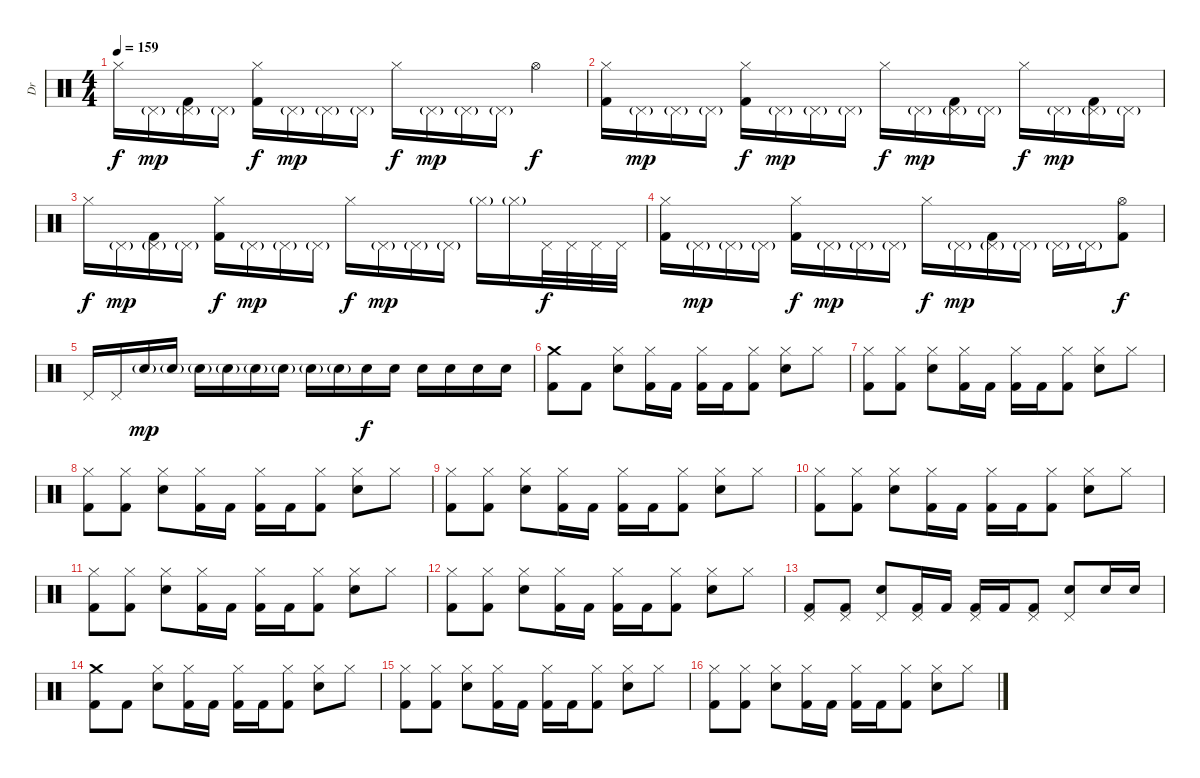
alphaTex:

\track ("Dr" "Dr") {instrument percussion}
\staff {score}
\articulation defaults
\ts (4 4)
\tempo 159
\clef neutral
\ks c "Hi-Hat (closed)".16{dy f} "Pedal Hi-Hat (hit)"{g}.16{dy mp}
("Pedal Hi-Hat (hit)"{g} "Kick (hit) 2").16 "Pedal Hi-Hat (hit)"{g}.16 ("Hi-Hat (closed)" "Kick (hit) 2").16{dy f} "Pedal Hi-Hat (hit)"{g}.16{dy mp} "Pedal Hi-Hat (hit)"{g}.16 "Pedal Hi-Hat (hit)"{g}.16 "Hi-Hat (closed)".16{dy f} "Pedal Hi-Hat (hit)"{g}.16{dy mp} "Pedal Hi-Hat (hit)"{g}.16 "Pedal Hi-Hat (hit)"{g}.16 "Hi-Hat (open)".4{dy f} |
("Hi-Hat (closed)" "Kick (hit) 2").16 "Pedal Hi-Hat (hit)"{g}.16{dy mp} "Pedal Hi-Hat (hit)"{g}.16 "Pedal Hi-Hat (hit)"{g}.16 ("Hi-Hat (closed)" "Kick (hit) 2").16{dy f} "Pedal Hi-Hat (hit)"{g}.16{dy mp} "Pedal Hi-Hat (hit)"{g}.16 "Pedal Hi-Hat (hit)"{g}.16 "Hi-Hat (closed)".16{dy f} "Pedal Hi-Hat (hit)"{g}.16{dy mp} ("Pedal Hi-Hat (hit)"{g} "Kick (hit) 2").16 "Pedal Hi-Hat (hit)"{g}.16 "Hi-Hat (closed)".16{dy f} "Pedal Hi-Hat (hit)"{g}.16{dy mp} ("Pedal Hi-Hat (hit)"{g} "Kick (hit) 2").16 "Pedal Hi-Hat (hit)"{g}.16 |
"Hi-Hat (closed)".16{dy f} "Pedal Hi-Hat (hit)"{g}.16{dy mp} ("Pedal Hi-Hat (hit)"{g} "Kick (hit) 2").16 "Pedal Hi-Hat (hit)"{g}.16 ("Hi-Hat (closed)" "Kick (hit) 2").16{dy f} "Pedal Hi-Hat (hit)"{g}.16{dy mp} "Pedal Hi-Hat (hit)"{g}.16 "Pedal Hi-Hat (hit)"{g}.16 "Hi-Hat (closed)".16{dy f} "Pedal Hi-Hat (hit)"{g}.16{dy mp} "Pedal Hi-Hat (hit)"{g}.16 "Pedal Hi-Hat (hit)"{g}.16 "Hi-Hat (closed)"{g}.16 "Hi-Hat (closed)"{g}.16 "Pedal Hi-Hat (hit)".32{dy f} "Pedal Hi-Hat (hit)".32 "Pedal Hi-Hat (hit)".32 "Pedal Hi-Hat (hit)".32 |
("Hi-Hat (closed)" "Kick (hit) 2").16 "Pedal Hi-Hat (hit)"{g}.16{dy mp} "Pedal Hi-Hat (hit)"{g}.16 "Pedal Hi-Hat (hit)"{g}.16 ("Hi-Hat (closed)" "Kick (hit) 2").16{dy f} "Pedal Hi-Hat (hit)"{g}.16{dy mp} "Pedal Hi-Hat (hit)"{g}.16 "Pedal Hi-Hat (hit)"{g}.16 "Hi-Hat (closed)".16{dy f} "Pedal Hi-Hat (hit)"{g}.16{dy mp} ("Pedal Hi-Hat (hit)"{g} "Kick (hit) 2").16 "Pedal Hi-Hat (hit)"{g}.16 "Pedal Hi-Hat (hit)"{g}.16 "Pedal Hi-Hat (hit)"{g}.16 ("Hi-Hat (open)" "Kick (hit) 2").8{dy f} |
"Pedal Hi-Hat (hit)".16 "Pedal Hi-Hat (hit)".16 "Electric Snare (hit)"{g}.16{dy mp volume 12} "Electric Snare (hit)"{g}.16 "Electric Snare (hit)"{g}.16 "Electric Snare (hit)"{g}.16 "Electric Snare (hit)"{g}.16 "Electric Snare (hit)"{g}.16 "Electric Snare (hit)"{g}.16 "Electric Snare (hit)"{g}.16 "Electric Snare (hit)".16{dy f} "Electric Snare (hit)".16 "Electric Snare (hit)".16 "Electric Snare (hit)".16 "Electric Snare (hit)".16 "Electric Snare (hit)".16 |
("Crash medium (hit)" "Kick (hit) 2").8 "Kick (hit) 2".8 ("Hi-Hat (closed)" "Electric Snare (hit)").8 ("Hi-Hat (closed)" "Kick (hit) 2").16 "Kick (hit) 2".16 ("Hi-Hat (closed)" "Kick (hit) 2").16 "Kick (hit) 2".16 ("Hi-Hat (closed)" "Kick (hit) 2").8 ("Hi-Hat (closed)" "Electric Snare (hit)").8 "Hi-Hat (closed)".8 |
("Hi-Hat (closed)" "Kick (hit) 2").8 ("Hi-Hat (closed)" "Kick (hit) 2").8 ("Hi-Hat (closed)" "Electric Snare (hit)").8 ("Hi-Hat (closed)" "Kick (hit) 2").16 "Kick (hit) 2".16 ("Hi-Hat (closed)" "Kick (hit) 2").16 "Kick (hit) 2".16 ("Hi-Hat (closed)" "Kick (hit) 2").8 ("Hi-Hat (closed)" "Electric Snare (hit)").8 "Hi-Hat (closed)".8 |
("Hi-Hat (closed)" "Kick (hit) 2").8 ("Hi-Hat (closed)" "Kick (hit) 2").8 ("Hi-Hat (closed)" "Electric Snare (hit)").8 ("Hi-Hat (closed)" "Kick (hit) 2").16 "Kick (hit) 2".16 ("Hi-Hat (closed)" "Kick (hit) 2").16 "Kick (hit) 2".16 ("Hi-Hat (closed)" "Kick (hit) 2").8 ("Hi-Hat (closed)" "Electric Snare (hit)").8 "Hi-Hat (closed)".8 |
("Hi-Hat (closed)" "Kick (hit) 2").8 ("Hi-Hat (closed)" "Kick (hit) 2").8 ("Hi-Hat (closed)" "Electric Snare (hit)").8 ("Hi-Hat (closed)" "Kick (hit) 2").16 "Kick (hit) 2".16 ("Hi-Hat (closed)" "Kick (hit) 2").16 "Kick (hit) 2".16 ("Hi-Hat (closed)" "Kick (hit) 2").8 ("Hi-Hat (closed)" "Electric Snare (hit)").8 "Hi-Hat (closed)".8 |
("Hi-Hat (closed)" "Kick (hit) 2").8 ("Hi-Hat (closed)" "Kick (hit) 2").8 ("Hi-Hat (closed)" "Electric Snare (hit)").8 ("Hi-Hat (closed)" "Kick (hit) 2").16 "Kick (hit) 2".16 ("Hi-Hat (closed)" "Kick (hit) 2").16 "Kick (hit) 2".16 ("Hi-Hat (closed)" "Kick (hit) 2").8 ("Hi-Hat (closed)" "Electric Snare (hit)").8 "Hi-Hat (closed)".8 |
("Hi-Hat (closed)" "Kick (hit) 2").8 ("Hi-Hat (closed)" "Kick (hit) 2").8 ("Hi-Hat (closed)" "Electric Snare (hit)").8 ("Hi-Hat (closed)" "Kick (hit) 2").16 "Kick (hit) 2".16 ("Hi-Hat (closed)" "Kick (hit) 2").16 "Kick (hit) 2".16 ("Hi-Hat (closed)" "Kick (hit) 2").8 ("Hi-Hat (closed)" "Electric Snare (hit)").8 "Hi-Hat (closed)".8 |
("Hi-Hat (closed)" "Kick (hit) 2").8 ("Hi-Hat (closed)" "Kick (hit) 2").8 ("Hi-Hat (closed)" "Electric Snare (hit)").8 ("Hi-Hat (closed)" "Kick (hit) 2").16 "Kick (hit) 2".16 ("Hi-Hat (closed)" "Kick (hit) 2").16 "Kick (hit) 2".16 ("Hi-Hat (closed)" "Kick (hit) 2").8 ("Hi-Hat (closed)" "Electric Snare (hit)").8 "Hi-Hat (closed)".8 |
("Pedal Hi-Hat (hit)" "Kick (hit) 2").8 ("Pedal Hi-Hat (hit)" "Kick (hit) 2").8 ("Pedal Hi-Hat (hit)" "Electric Snare (hit)").8 ("Pedal Hi-Hat (hit)" "Kick (hit) 2").16 "Kick (hit) 2".16 ("Pedal Hi-Hat (hit)" "Kick (hit) 2").16 "Kick (hit) 2".16 ("Pedal Hi-Hat (hit)" "Kick (hit) 2").8 ("Pedal Hi-Hat (hit)" "Electric Snare (hit)").8 "Electric Snare (hit)".16 "Electric Snare (hit)".16 |
("Crash medium (hit)" "Kick (hit) 2").8 "Kick (hit) 2".8 ("Hi-Hat (closed)" "Electric Snare (hit)").8 ("Hi-Hat (closed)" "Kick (hit) 2").16 "Kick (hit) 2".16 ("Hi-Hat (closed)" "Kick (hit) 2").16 "Kick (hit) 2".16 ("Hi-Hat (closed)" "Kick (hit) 2").8 ("Hi-Hat (closed)" "Electric Snare (hit)").8 "Hi-Hat (closed)".8 |
("Hi-Hat (closed)" "Kick (hit) 2").8 ("Hi-Hat (closed)" "Kick (hit) 2").8 ("Hi-Hat (closed)" "Electric Snare (hit)").8 ("Hi-Hat (closed)" "Kick (hit) 2").16 "Kick (hit) 2".16 ("Hi-Hat (closed)" "Kick (hit) 2").16 "Kick (hit) 2".16 ("Hi-Hat (closed)" "Kick (hit) 2").8 ("Hi-Hat (closed)" "Electric Snare (hit)").8 "Hi-Hat (closed)".8 |
("Hi-Hat (closed)" "Kick (hit) 2").8 ("Hi-Hat (closed)" "Kick (hit) 2").8 ("Hi-Hat (closed)" "Electric Snare (hit)").8 ("Hi-Hat (closed)" "Kick (hit) 2").16 "Kick (hit) 2".16 ("Hi-Hat (closed)" "Kick (hit) 2").16 "Kick (hit) 2".16 ("Hi-Hat (closed)" "Kick (hit) 2").8 ("Hi-Hat (closed)" "Electric Snare (hit)").8 "Hi-Hat (closed)".8
